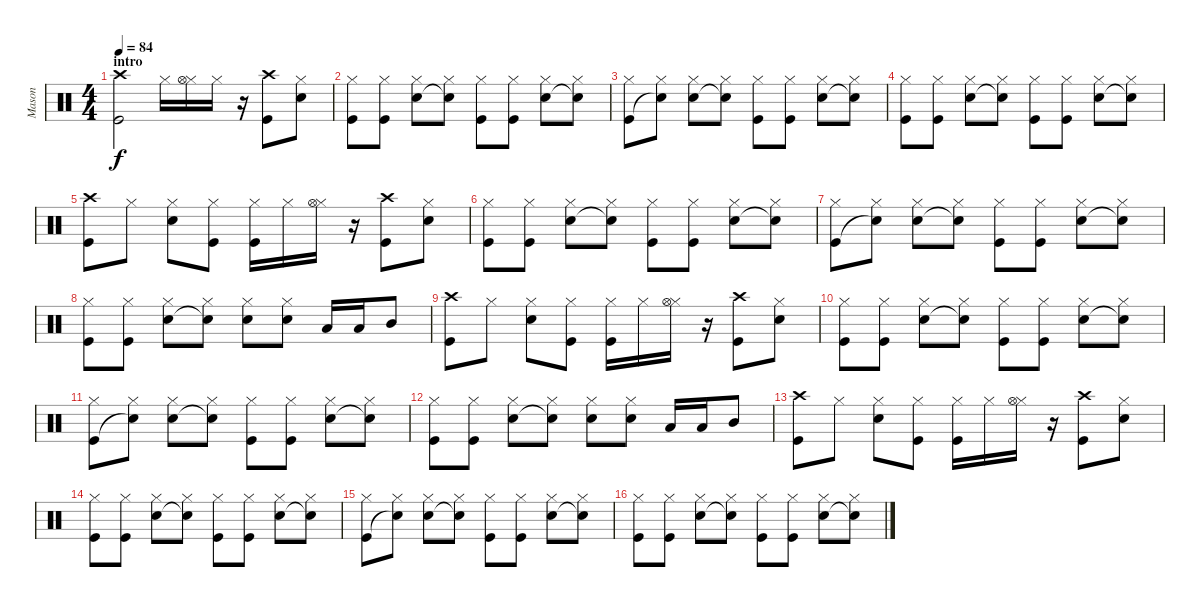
\track ("Mason" "Mason") {instrument percussion}
\staff {score}
\articulation defaults
\ts (4 4)
\section ("" "intro")
\tempo 84
\clef neutral
\ks c
("Kick (hit)" "Crash high (hit)").2{dy f} "Hi-Hat (closed)".16 ("Hi-Hat (closed)" "Hi-Hat (open)").16 "Hi-Hat (closed)".16 r.16 ("Kick (hit)" "Crash high (hit)").8 ("Snare (hit) 2" "Hi-Hat (closed)").8 |
("Kick (hit)" "Hi-Hat (closed)").8 ("Kick (hit)" "Hi-Hat (closed)").8 ("Snare (hit) 2" "Hi-Hat (closed)").8 ("Snare (hit)"{t} "Hi-Hat (closed)").8 ("Kick (hit)" "Hi-Hat (closed)").8 ("Kick (hit)" "Hi-Hat (closed)").8 ("Snare (hit) 2" "Hi-Hat (closed)").8 ("Snare (hit)"{t} "Hi-Hat (closed)").8 |
("Kick (hit)" "Hi-Hat (closed)").8 ("Snare (hit)"{t} "Hi-Hat (closed)").8 ("Snare (hit) 2" "Hi-Hat (closed)").8 ("Snare (hit)"{t} "Hi-Hat (closed)").8 ("Kick (hit)" "Hi-Hat (closed)").8 ("Kick (hit)" "Hi-Hat (closed)").8 ("Snare (hit) 2" "Hi-Hat (closed)").8 ("Snare (hit)"{t} "Hi-Hat (closed)").8 |
("Kick (hit)" "Hi-Hat (closed)").8 ("Kick (hit)" "Hi-Hat (closed)").8 ("Snare (hit) 2" "Hi-Hat (closed)").8 ("Snare (hit)"{t} "Hi-Hat (closed)").8 ("Kick (hit)" "Hi-Hat (closed)").8 ("Kick (hit)" "Hi-Hat (closed)").8 ("Snare (hit) 2" "Hi-Hat (closed)").8 ("Snare (hit)"{t} "Hi-Hat (closed)").8 |
("Kick (hit)" "Crash high (hit)").8 "Hi-Hat (closed)".8 ("Snare (hit) 2" "Hi-Hat (closed)").8 ("Kick (hit)" "Hi-Hat (closed)").8 ("Kick (hit)" "Hi-Hat (closed)").16 "Hi-Hat (closed)".16 ("Hi-Hat (closed)" "Hi-Hat (open)").16 r.16 ("Kick (hit)" "Crash high (hit)").8 ("Snare (hit) 2" "Hi-Hat (closed)").8 |
("Kick (hit)" "Hi-Hat (closed)").8 ("Kick (hit)" "Hi-Hat (closed)").8 ("Snare (hit) 2" "Hi-Hat (closed)").8 ("Snare (hit)"{t} "Hi-Hat (closed)").8 ("Kick (hit)" "Hi-Hat (closed)").8 ("Kick (hit)" "Hi-Hat (closed)").8 ("Snare (hit) 2" "Hi-Hat (closed)").8 ("Snare (hit)"{t} "Hi-Hat (closed)").8 |
("Kick (hit)" "Hi-Hat (closed)").8 ("Snare (hit)"{t} "Hi-Hat (closed)").8 ("Snare (hit) 2" "Hi-Hat (closed)").8 ("Snare (hit)"{t} "Hi-Hat (closed)").8 ("Kick (hit)" "Hi-Hat (closed)").8 ("Kick (hit)" "Hi-Hat (closed)").8 ("Snare (hit) 2" "Hi-Hat (closed)").8 ("Snare (hit)"{t} "Hi-Hat (closed)").8 |
("Kick (hit)" "Hi-Hat (closed)").8 ("Kick (hit)" "Hi-Hat (closed)").8 ("Snare (hit) 2" "Hi-Hat (closed)").8 ("Snare (hit)"{t} "Hi-Hat (closed)").8 ("Snare (hit) 2" "Hi-Hat (closed)").8 ("Snare (hit) 2" "Hi-Hat (closed)").8 "Low Tom (hit)".16 "Low Tom (hit)".16 "Mid Tom (hit)".8 |
("Kick (hit)" "Crash high (hit)").8 "Hi-Hat (closed)".8 ("Snare (hit) 2" "Hi-Hat (closed)").8 ("Kick (hit)" "Hi-Hat (closed)").8 ("Kick (hit)" "Hi-Hat (closed)").16 "Hi-Hat (closed)".16 ("Hi-Hat (closed)" "Hi-Hat (open)").16 r.16 ("Kick (hit)" "Crash high (hit)").8 ("Snare (hit) 2" "Hi-Hat (closed)").8 |
("Kick (hit)" "Hi-Hat (closed)").8 ("Kick (hit)" "Hi-Hat (closed)").8 ("Snare (hit) 2" "Hi-Hat (closed)").8 ("Snare (hit)"{t} "Hi-Hat (closed)").8 ("Kick (hit)" "Hi-Hat (closed)").8 ("Kick (hit)" "Hi-Hat (closed)").8 ("Snare (hit) 2" "Hi-Hat (closed)").8 ("Snare (hit)"{t} "Hi-Hat (closed)").8 |
("Kick (hit)" "Hi-Hat (closed)").8 ("Snare (hit)"{t} "Hi-Hat (closed)").8 ("Snare (hit) 2" "Hi-Hat (closed)").8 ("Snare (hit)"{t} "Hi-Hat (closed)").8 ("Kick (hit)" "Hi-Hat (closed)").8 ("Kick (hit)" "Hi-Hat (closed)").8 ("Snare (hit) 2" "Hi-Hat (closed)").8 ("Snare (hit)"{t} "Hi-Hat (closed)").8 |
("Kick (hit)" "Hi-Hat (closed)").8 ("Kick (hit)" "Hi-Hat (closed)").8 ("Snare (hit) 2" "Hi-Hat (closed)").8 ("Snare (hit)"{t} "Hi-Hat (closed)").8 ("Snare (hit) 2" "Hi-Hat (closed)").8 ("Snare (hit) 2" "Hi-Hat (closed)").8 "Low Tom (hit)".16 "Low Tom (hit)".16 "Mid Tom (hit)".8 |
("Kick (hit)" "Crash high (hit)").8 "Hi-Hat (closed)".8 ("Snare (hit) 2" "Hi-Hat (closed)").8 ("Kick (hit)" "Hi-Hat (closed)").8 ("Kick (hit)" "Hi-Hat (closed)").16 "Hi-Hat (closed)".16 ("Hi-Hat (closed)" "Hi-Hat (open)").16 r.16 ("Kick (hit)" "Crash high (hit)").8 ("Snare (hit) 2" "Hi-Hat (closed)").8 |
("Kick (hit)" "Hi-Hat (closed)").8 ("Kick (hit)" "Hi-Hat (closed)").8 ("Snare (hit) 2" "Hi-Hat (closed)").8 ("Snare (hit)"{t} "Hi-Hat (closed)").8 ("Kick (hit)" "Hi-Hat (closed)").8 ("Kick (hit)" "Hi-Hat (closed)").8 ("Snare (hit) 2" "Hi-Hat (closed)").8 ("Snare (hit)"{t} "Hi-Hat (closed)").8 |
("Kick (hit)" "Hi-Hat (closed)").8 ("Snare (hit)"{t} "Hi-Hat (closed)").8 ("Snare (hit) 2" "Hi-Hat (closed)").8 ("Snare (hit)"{t} "Hi-Hat (closed)").8 ("Kick (hit)" "Hi-Hat (closed)").8 ("Kick (hit)" "Hi-Hat (closed)").8 ("Snare (hit) 2" "Hi-Hat (closed)").8 ("Snare (hit)"{t} "Hi-Hat (closed)").8 |
("Kick (hit)" "Hi-Hat (closed)").8 ("Kick (hit)" "Hi-Hat (closed)").8 ("Snare (hit) 2" "Hi-Hat (closed)").8 ("Snare (hit)"{t} "Hi-Hat (closed)").8 ("Kick (hit)" "Hi-Hat (closed)").8 ("Kick (hit)" "Hi-Hat (closed)").8 ("Snare (hit) 2" "Hi-Hat (closed)").8 ("Snare (hit)"{t} "Hi-Hat (closed)").8
